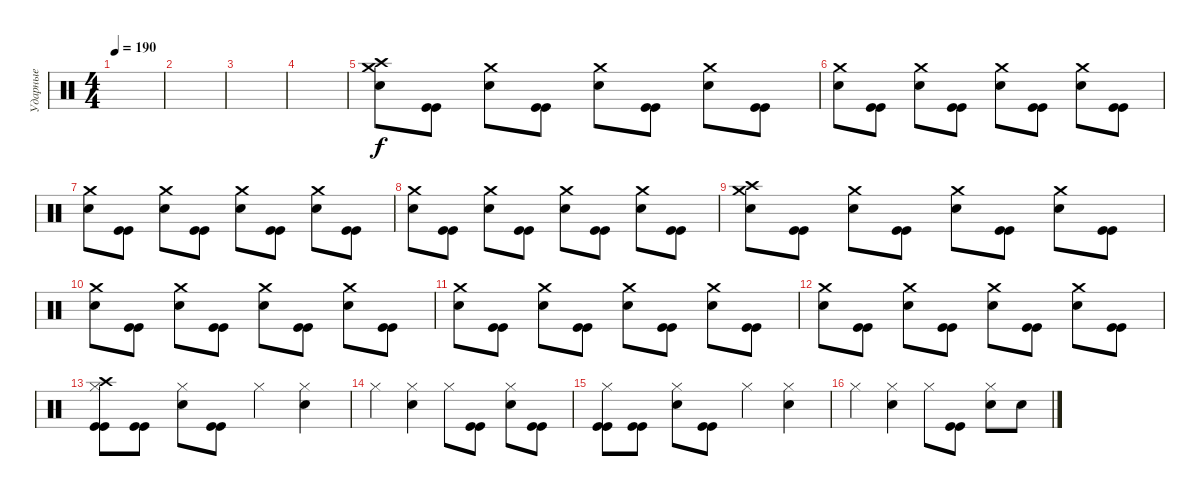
\track ("Ударные" "Ударные") {instrument percussion}
\staff {score}
\articulation defaults
\ts (4 4)
\tempo 190
\clef neutral
\ks c
|
|
|
|
("Crash high (hit)" "Crash medium (hit)" "Electric Snare (hit)").8 ("Kick (hit)" "Kick (hit)").8 ("Crash medium (hit)" "Electric Snare (hit)").8 ("Kick (hit)" "Kick (hit)").8 ("Crash medium (hit)" "Electric Snare (hit)").8 ("Kick (hit)" "Kick (hit)").8 ("Crash medium (hit)" "Electric Snare (hit)").8 ("Kick (hit)" "Kick (hit)").8 |
("Crash medium (hit)" "Electric Snare (hit)").8 ("Kick (hit)" "Kick (hit)").8 ("Crash medium (hit)" "Electric Snare (hit)").8 ("Kick (hit)" "Kick (hit)").8 ("Crash medium (hit)" "Electric Snare (hit)").8 ("Kick (hit)" "Kick (hit)").8 ("Crash medium (hit)" "Electric Snare (hit)").8 ("Kick (hit)" "Kick (hit)").8 |
("Crash medium (hit)" "Electric Snare (hit)").8 ("Kick (hit)" "Kick (hit)").8 ("Crash medium (hit)" "Electric Snare (hit)").8 ("Kick (hit)" "Kick (hit)").8 ("Crash medium (hit)" "Electric Snare (hit)").8 ("Kick (hit)" "Kick (hit)").8 ("Crash medium (hit)" "Electric Snare (hit)").8 ("Kick (hit)" "Kick (hit)").8 |
("Crash medium (hit)" "Electric Snare (hit)").8 ("Kick (hit)" "Kick (hit)").8 ("Crash medium (hit)" "Electric Snare (hit)").8 ("Kick (hit)" "Kick (hit)").8 ("Crash medium (hit)" "Electric Snare (hit)").8 ("Kick (hit)" "Kick (hit)").8 ("Crash medium (hit)" "Electric Snare (hit)").8 ("Kick (hit)" "Kick (hit)").8 |
("Crash high (hit)" "Crash medium (hit)" "Electric Snare (hit)").8 ("Kick (hit)" "Kick (hit)").8 ("Crash medium (hit)" "Electric Snare (hit)").8 ("Kick (hit)" "Kick (hit)").8 ("Crash medium (hit)" "Electric Snare (hit)").8 ("Kick (hit)" "Kick (hit)").8 ("Crash medium (hit)" "Electric Snare (hit)").8 ("Kick (hit)" "Kick (hit)").8 |
("Crash medium (hit)" "Electric Snare (hit)").8 ("Kick (hit)" "Kick (hit)").8 ("Crash medium (hit)" "Electric Snare (hit)").8 ("Kick (hit)" "Kick (hit)").8 ("Crash medium (hit)" "Electric Snare (hit)").8 ("Kick (hit)" "Kick (hit)").8 ("Crash medium (hit)" "Electric Snare (hit)").8 ("Kick (hit)" "Kick (hit)").8 |
("Crash medium (hit)" "Electric Snare (hit)").8 ("Kick (hit)" "Kick (hit)").8 ("Crash medium (hit)" "Electric Snare (hit)").8 ("Kick (hit)" "Kick (hit)").8 ("Crash medium (hit)" "Electric Snare (hit)").8 ("Kick (hit)" "Kick (hit)").8 ("Crash medium (hit)" "Electric Snare (hit)").8 ("Kick (hit)" "Kick (hit)").8 |
("Crash medium (hit)" "Electric Snare (hit)").8 ("Kick (hit)" "Kick (hit)").8 ("Crash medium (hit)" "Electric Snare (hit)").8 ("Kick (hit)" "Kick (hit)").8 ("Crash medium (hit)" "Electric Snare (hit)").8 ("Kick (hit)" "Kick (hit)").8 ("Crash medium (hit)" "Electric Snare (hit)").8 ("Kick (hit)" "Kick (hit)").8 |
("Crash high (hit)" "Hi-Hat (closed)" "Kick (hit)" "Kick (hit)").8 ("Kick (hit)" "Kick (hit)").8 ("Hi-Hat (closed)" "Electric Snare (hit)").8 ("Kick (hit)" "Kick (hit)").8 "Hi-Hat (closed)".4 ("Hi-Hat (closed)" "Electric Snare (hit)").4 |
"Hi-Hat (closed)".4 ("Hi-Hat (closed)" "Electric Snare (hit)").4 "Hi-Hat (closed)".8 ("Kick (hit)" "Kick (hit)").8 ("Hi-Hat (closed)" "Electric Snare (hit)").8 ("Kick (hit)" "Kick (hit)").8 |
("Hi-Hat (closed)" "Kick (hit)" "Kick (hit)").8 ("Kick (hit)" "Kick (hit)").8 ("Hi-Hat (closed)" "Electric Snare (hit)").8 ("Kick (hit)" "Kick (hit)").8 "Hi-Hat (closed)".4 ("Hi-Hat (closed)" "Electric Snare (hit)").4 |
"Hi-Hat (closed)".4 ("Hi-Hat (closed)" "Electric Snare (hit)").4 "Hi-Hat (closed)".8 ("Kick (hit)" "Kick (hit)").8 ("Hi-Hat (closed)" "Electric Snare (hit)").8 "Electric Snare (hit)".8
